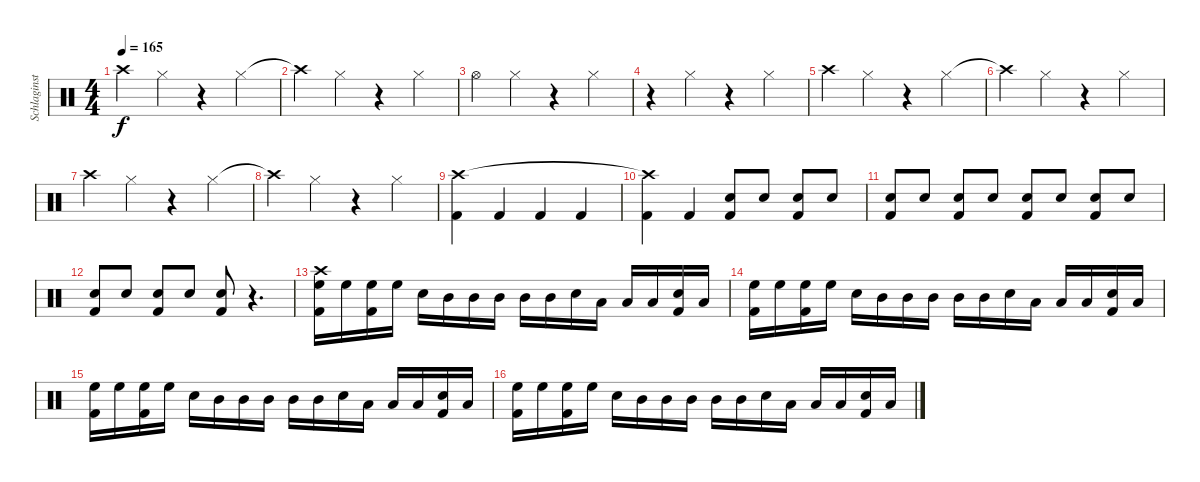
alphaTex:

\track ("Schlaginstrumente - Auswahl" "Schlaginst") {instrument percussion}
\staff {score}
\articulation defaults
\ts (4 4)
\tempo 165
\clef neutral
\ks c "Crash high (hit)".4{dy f} "Hi-Hat (closed)".4
r.4 "Hi-Hat (closed)".4 |
"Crash high (hit)"{t}.4 "Hi-Hat (closed)".4 r.4 "Hi-Hat (closed)".4 |
"Hi-Hat (open)".4 "Hi-Hat (closed)".4 r.4 "Hi-Hat (closed)".4 |
r.4 "Hi-Hat (closed)".4 r.4 "Hi-Hat (closed)".4 |
"Crash high (hit)".4 "Hi-Hat (closed)".4 r.4 "Hi-Hat (closed)".4 |
"Crash high (hit)"{t}.4 "Hi-Hat (closed)".4 r.4 "Hi-Hat (closed)".4 |
"Crash high (hit)".4 "Hi-Hat (closed)".4 r.4 "Hi-Hat (closed)".4 |
"Crash high (hit)"{t}.4 "Hi-Hat (closed)".4 r.4 "Hi-Hat (closed)".4 |
("Kick (hit) 2" "Crash high (hit)").4 "Kick (hit) 2".4 "Kick (hit) 2".4 "Kick (hit) 2".4 |
("Kick (hit) 2" "Crash high (hit)"{t}).4 "Kick (hit) 2".4 ("Snare (hit) 2" "Kick (hit) 2").8 "Snare (hit) 2".8 ("Snare (hit) 2" "Kick (hit) 2").8 "Snare (hit) 2".8 |
("Snare (hit) 2" "Kick (hit) 2").8 "Snare (hit) 2".8 ("Snare (hit) 2" "Kick (hit) 2").8 "Snare (hit) 2".8 ("Snare (hit) 2" "Kick (hit) 2").8 "Snare (hit) 2".8 ("Snare (hit) 2" "Kick (hit) 2").8 "Snare (hit) 2".8 |
("Snare (hit) 2" "Kick (hit) 2").8 "Snare (hit) 2".8 ("Snare (hit) 2" "Kick (hit) 2").8 "Snare (hit) 2".8 ("Snare (hit) 2" "Kick (hit) 2").8 r.4{d} |
("Kick (hit) 2" "High Floor Tom (hit)" "Crash high (hit)").16 "High Floor Tom (hit)".16 ("Kick (hit) 2" "High Floor Tom (hit)").16 "High Floor Tom (hit)".16 "Snare (hit) 2".16 "Mid Tom (hit)".16 "Mid Tom (hit)".16 "Mid Tom (hit)".16 "Mid Tom (hit)".16 "Mid Tom (hit)".16 "Snare (hit) 2".16 "Low Tom (hit)".16 "Low Tom (hit)".16 "Low Tom (hit)".16 ("Kick (hit) 2" "Snare (hit) 2").16 "Low Tom (hit)".16 |
("Kick (hit) 2" "High Floor Tom (hit)").16 "High Floor Tom (hit)".16 ("Kick (hit) 2" "High Floor Tom (hit)").16 "High Floor Tom (hit)".16 "Snare (hit) 2".16 "Mid Tom (hit)".16 "Mid Tom (hit)".16 "Mid Tom (hit)".16 "Mid Tom (hit)".16 "Mid Tom (hit)".16 "Snare (hit) 2".16 "Low Tom (hit)".16 "Low Tom (hit)".16 "Low Tom (hit)".16 ("Kick (hit) 2" "Snare (hit) 2").16 "Low Tom (hit)".16 |
("Kick (hit) 2" "High Floor Tom (hit)").16 "High Floor Tom (hit)".16 ("Kick (hit) 2" "High Floor Tom (hit)").16 "High Floor Tom (hit)".16 "Snare (hit) 2".16 "Mid Tom (hit)".16 "Mid Tom (hit)".16 "Mid Tom (hit)".16 "Mid Tom (hit)".16 "Mid Tom (hit)".16 "Snare (hit) 2".16 "Low Tom (hit)".16 "Low Tom (hit)".16 "Low Tom (hit)".16 ("Kick (hit) 2" "Snare (hit) 2").16 "Low Tom (hit)".16 |
("Kick (hit) 2" "High Floor Tom (hit)").16 "High Floor Tom (hit)".16 ("Kick (hit) 2" "High Floor Tom (hit)").16 "High Floor Tom (hit)".16 "Snare (hit) 2".16 "Mid Tom (hit)".16 "Mid Tom (hit)".16 "Mid Tom (hit)".16 "Mid Tom (hit)".16 "Mid Tom (hit)".16 "Snare (hit) 2".16 "Low Tom (hit)".16 "Low Tom (hit)".16 "Low Tom (hit)".16 ("Kick (hit) 2" "Snare (hit) 2").16 "Low Tom (hit)".16
